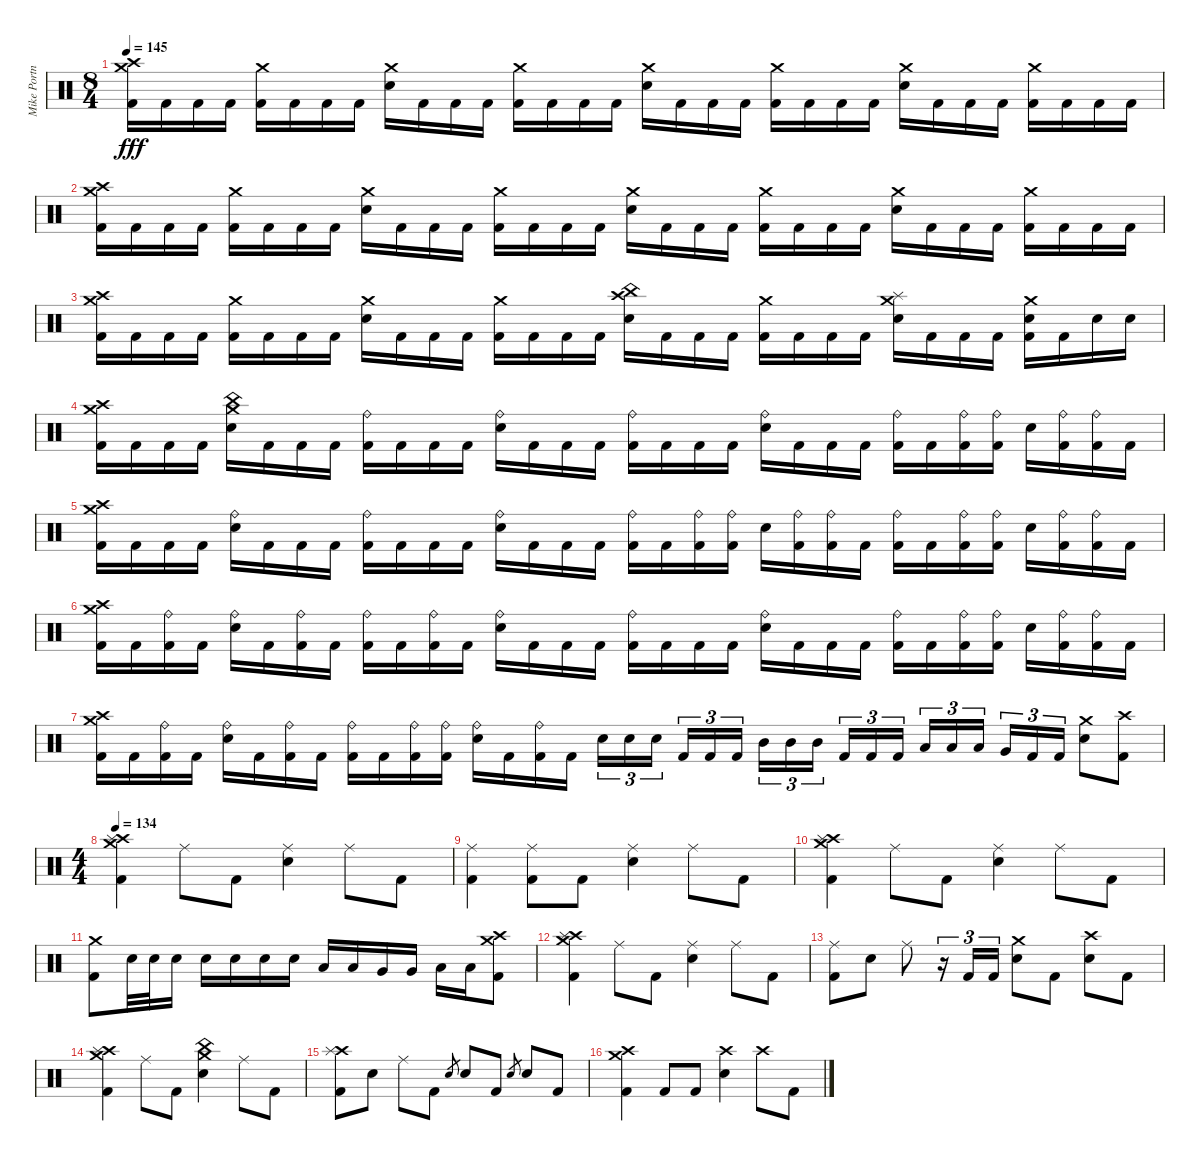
\track ("Mike Portnoy" "Mike Portn") {instrument percussion}
\staff {score}
\articulation defaults
\ts (8 4)
\tempo 145
\clef neutral
\ks c
("Crash high (hit)" "Crash medium (hit)" "Kick (hit) 2").16{dy fff} "Kick (hit) 2".16 "Kick (hit) 2".16 "Kick (hit) 2".16 ("Crash medium (hit)" "Kick (hit) 2").16 "Kick (hit) 2".16 "Kick (hit) 2".16 "Kick (hit) 2".16 ("Crash medium (hit)" "Electric Snare (hit)").16 "Kick (hit) 2".16 "Kick (hit) 2".16 "Kick (hit) 2".16 ("Crash medium (hit)" "Kick (hit) 2").16 "Kick (hit) 2".16 "Kick (hit) 2".16 "Kick (hit) 2".16 ("Crash medium (hit)" "Electric Snare (hit)").16 "Kick (hit) 2".16 "Kick (hit) 2".16 "Kick (hit) 2".16 ("Crash medium (hit)" "Kick (hit) 2").16 "Kick (hit) 2".16 "Kick (hit) 2".16 "Kick (hit) 2".16 ("Crash medium (hit)" "Electric Snare (hit)").16 "Kick (hit) 2".16 "Kick (hit) 2".16 "Kick (hit) 2".16 ("Crash medium (hit)" "Kick (hit) 2").16 "Kick (hit) 2".16 "Kick (hit) 2".16 "Kick (hit) 2".16 |
("Crash high (hit)" "Crash medium (hit)" "Kick (hit) 2").16 "Kick (hit) 2".16 "Kick (hit) 2".16 "Kick (hit) 2".16 ("Crash medium (hit)" "Kick (hit) 2").16 "Kick (hit) 2".16 "Kick (hit) 2".16 "Kick (hit) 2".16 ("Crash medium (hit)" "Electric Snare (hit)").16 "Kick (hit) 2".16 "Kick (hit) 2".16 "Kick (hit) 2".16 ("Crash medium (hit)" "Kick (hit) 2").16 "Kick (hit) 2".16 "Kick (hit) 2".16 "Kick (hit) 2".16 ("Crash medium (hit)" "Electric Snare (hit)").16 "Kick (hit) 2".16 "Kick (hit) 2".16 "Kick (hit) 2".16 ("Crash medium (hit)" "Kick (hit) 2").16 "Kick (hit) 2".16 "Kick (hit) 2".16 "Kick (hit) 2".16 ("Crash medium (hit)" "Electric Snare (hit)").16 "Kick (hit) 2".16 "Kick (hit) 2".16 "Kick (hit) 2".16 ("Crash medium (hit)" "Kick (hit) 2").16 "Kick (hit) 2".16 "Kick (hit) 2".16 "Kick (hit) 2".16 |
("Crash high (hit)" "Crash medium (hit)" "Kick (hit) 2").16 "Kick (hit) 2".16 "Kick (hit) 2".16 "Kick (hit) 2".16 ("Crash medium (hit)" "Kick (hit) 2").16 "Kick (hit) 2".16 "Kick (hit) 2".16 "Kick (hit) 2".16 ("Crash medium (hit)" "Electric Snare (hit)").16 "Kick (hit) 2".16 "Kick (hit) 2".16 "Kick (hit) 2".16 ("Crash medium (hit)" "Kick (hit) 2").16 "Kick (hit) 2".16 "Kick (hit) 2".16 "Kick (hit) 2".16 ("Crash high (hit)" "China (hit)" "Electric Snare (hit)").16 "Kick (hit) 2".16 "Kick (hit) 2".16 "Kick (hit) 2".16 ("Crash medium (hit)" "Kick (hit) 2").16 "Kick (hit) 2".16 "Kick (hit) 2".16 "Kick (hit) 2".16 ("Crash medium (hit)" "Splash (hit)" "Electric Snare (hit)").16 "Kick (hit) 2".16 "Kick (hit) 2".16 "Kick (hit) 2".16 ("Crash medium (hit)" "Electric Snare (hit)" "Kick (hit) 2").16 "Kick (hit) 2".16 "Electric Snare (hit)".16 "Electric Snare (hit)".16 |
("Crash high (hit)" "Crash medium (hit)" "Kick (hit) 2").16 "Kick (hit) 2".16 "Kick (hit) 2".16 "Kick (hit) 2".16 ("Crash medium (hit)" "China (hit)" "Electric Snare (hit)").16 "Kick (hit) 2".16 "Kick (hit) 2".16 "Kick (hit) 2".16 ("Ride (bell)" "Kick (hit) 2").16 "Kick (hit) 2".16 "Kick (hit) 2".16 "Kick (hit) 2".16 ("Ride (bell)" "Electric Snare (hit)").16 "Kick (hit) 2".16 "Kick (hit) 2".16 "Kick (hit) 2".16 ("Ride (bell)" "Kick (hit) 2").16 "Kick (hit) 2".16 "Kick (hit) 2".16 "Kick (hit) 2".16 ("Ride (bell)" "Electric Snare (hit)").16 "Kick (hit) 2".16 "Kick (hit) 2".16 "Kick (hit) 2".16 ("Ride (bell)" "Kick (hit) 2").16 "Kick (hit) 2".16 ("Ride (bell)" "Kick (hit) 2").16 ("Ride (bell)" "Kick (hit) 2").16 "Electric Snare (hit)".16 ("Ride (bell)" "Kick (hit) 2").16 ("Ride (bell)" "Kick (hit) 2").16 "Kick (hit) 2".16 |
("Crash high (hit)" "Crash medium (hit)" "Kick (hit) 2").16 "Kick (hit) 2".16 "Kick (hit) 2".16 "Kick (hit) 2".16 ("Ride (bell)" "Electric Snare (hit)").16 "Kick (hit) 2".16 "Kick (hit) 2".16 "Kick (hit) 2".16 ("Ride (bell)" "Kick (hit) 2").16 "Kick (hit) 2".16 "Kick (hit) 2".16 "Kick (hit) 2".16 ("Ride (bell)" "Electric Snare (hit)").16 "Kick (hit) 2".16 "Kick (hit) 2".16 "Kick (hit) 2".16 ("Ride (bell)" "Kick (hit) 2").16 "Kick (hit) 2".16 ("Ride (bell)" "Kick (hit) 2").16 ("Ride (bell)" "Kick (hit) 2").16 "Electric Snare (hit)".16 ("Ride (bell)" "Kick (hit) 2").16 ("Ride (bell)" "Kick (hit) 2").16 "Kick (hit) 2".16 ("Ride (bell)" "Kick (hit) 2").16 "Kick (hit) 2".16 ("Ride (bell)" "Kick (hit) 2").16 ("Ride (bell)" "Kick (hit) 2").16 "Electric Snare (hit)".16 ("Ride (bell)" "Kick (hit) 2").16 ("Ride (bell)" "Kick (hit) 2").16 "Kick (hit) 2".16 |
("Crash high (hit)" "Crash medium (hit)" "Kick (hit) 2").16 "Kick (hit) 2".16 ("Ride (bell)" "Kick (hit) 2").16 "Kick (hit) 2".16 ("Ride (bell)" "Electric Snare (hit)").16 "Kick (hit) 2".16 ("Ride (bell)" "Kick (hit) 2").16 "Kick (hit) 2".16 ("Ride (bell)" "Kick (hit) 2").16 "Kick (hit) 2".16 ("Ride (bell)" "Kick (hit) 2").16 "Kick (hit) 2".16 ("Ride (bell)" "Electric Snare (hit)").16 "Kick (hit) 2".16 "Kick (hit) 2".16 "Kick (hit) 2".16 ("Ride (bell)" "Kick (hit) 2").16 "Kick (hit) 2".16 "Kick (hit) 2".16 "Kick (hit) 2".16 ("Ride (bell)" "Electric Snare (hit)").16 "Kick (hit) 2".16 "Kick (hit) 2".16 "Kick (hit) 2".16 ("Ride (bell)" "Kick (hit) 2").16 "Kick (hit) 2".16 ("Ride (bell)" "Kick (hit) 2").16 ("Ride (bell)" "Kick (hit) 2").16 "Electric Snare (hit)".16 ("Ride (bell)" "Kick (hit) 2").16 ("Ride (bell)" "Kick (hit) 2").16 "Kick (hit) 2".16 |
("Crash high (hit)" "Crash medium (hit)" "Kick (hit) 2").16 "Kick (hit) 2".16 ("Ride (bell)" "Kick (hit) 2").16 "Kick (hit) 2".16 ("Ride (bell)" "Electric Snare (hit)").16 "Kick (hit) 2".16 ("Ride (bell)" "Kick (hit) 2").16 "Kick (hit) 2".16 ("Ride (bell)" "Kick (hit) 2").16 "Kick (hit) 2".16 ("Ride (bell)" "Kick (hit) 2").16 ("Ride (bell)" "Kick (hit) 2").16 ("Ride (bell)" "Electric Snare (hit)").16 "Kick (hit) 2".16 ("Ride (bell)" "Kick (hit) 2").16 "Kick (hit) 2".16 "Electric Snare (hit)".16{tu (3 2)} "Electric Snare (hit)".16{tu (3 2)} "Electric Snare (hit)".16{tu (3 2) beam splitsecondary} "Kick (hit) 2".16{tu (3 2)} "Kick (hit) 2".16{tu (3 2)} "Kick (hit) 2".16{tu (3 2)} "Mid Tom (hit)".16{tu (3 2)} "Mid Tom (hit)".16{tu (3 2)} "Mid Tom (hit)".16{tu (3 2) beam splitsecondary} "Kick (hit) 2".16{tu (3 2)} "Kick (hit) 2".16{tu (3 2)} "Kick (hit) 2".16{tu (3 2)} "Low Tom (hit)".16{tu (3 2)} "Low Tom (hit)".16{tu (3 2)} "Low Tom (hit)".16{tu (3 2) beam splitsecondary} "Very Low Tom (hit)".16{tu (3 2)} "Kick (hit) 2".16{tu (3 2)} "Kick (hit) 2".16{tu (3 2)} ("Crash medium (hit)" "Electric Snare (hit)").8 ("Crash high (hit)" "Kick (hit) 2").8 |
\ts (4 4)
\tempo 134
("Crash high (hit)" "Crash medium (hit)" "Splash (hit)" "Kick (hit) 2").4 "Ride (middle)".8 "Kick (hit) 2".8 ("Ride (middle)" "Electric Snare (hit)").4 "Ride (middle)".8 "Kick (hit) 2".8 |
("Ride (middle)" "Kick (hit) 2").4 ("Ride (middle)" "Kick (hit) 2").8 "Kick (hit) 2".8 ("Ride (middle)" "Electric Snare (hit)").4 "Ride (middle)".8 "Kick (hit) 2".8 |
("Crash high (hit)" "Crash medium (hit)" "Splash (hit)" "Kick (hit) 2").4 "Ride (middle)".8 "Kick (hit) 2".8 ("Ride (middle)" "Electric Snare (hit)").4 "Ride (middle)".8 "Kick (hit) 2".8 |
("Crash medium (hit)" "Kick (hit) 2").8 "Electric Snare (hit)".32 "Electric Snare (hit)".32 "Electric Snare (hit)".16 "Electric Snare (hit)".16 "Electric Snare (hit)".16 "Electric Snare (hit)".16 "Electric Snare (hit)".16 "Low Tom (hit)".16 "Low Tom (hit)".16 "Very Low Tom (hit)".16 "Very Low Tom (hit)".16 "Low Floor Tom (hit)".16 "Low Floor Tom (hit)".16 ("Crash medium (hit)" "Crash high (hit)" "Kick (hit) 2").8 |
("Crash high (hit)" "Crash medium (hit)" "Splash (hit)" "Kick (hit) 2").4 "Ride (middle)".8 "Kick (hit) 2".8 ("Ride (middle)" "Electric Snare (hit)").4 "Ride (middle)".8 "Kick (hit) 2".8 |
("Ride (middle)" "Kick (hit) 2").8 "Electric Snare (hit)".8 "Ride (middle)".8 r.16{tu (3 2)} "Kick (hit) 2".16{tu (3 2)} "Kick (hit) 2".16{tu (3 2)} ("Crash medium (hit)" "Electric Snare (hit)").8 "Kick (hit) 2".8 ("Crash high (hit)" "Electric Snare (hit)").8 "Kick (hit) 2".8 |
("Crash high (hit)" "Crash medium (hit)" "Splash (hit)" "Kick (hit) 2").4 "Ride (middle)".8 "Kick (hit) 2".8 ("China (hit)" "Crash medium (hit)" "Electric Snare (hit)").4 "Ride (middle)".8 "Kick (hit) 2".8 |
("Crash high (hit)" "Splash (hit)" "Kick (hit) 2").8 "Electric Snare (hit)".8 "Ride (middle)".8 "Kick (hit) 2".8 "Electric Snare (hit)".8{gr} "Electric Snare (hit)".8 "Kick (hit) 2".8 "Electric Snare (hit)".8{gr} "Electric Snare (hit)".8 "Kick (hit) 2".8 |
("Crash high (hit)" "Crash medium (hit)" "Kick (hit) 2").4 "Kick (hit) 2".8 "Kick (hit) 2".8 ("Crash high (hit)" "Electric Snare (hit)").4 "Crash high (hit)".8 "Kick (hit) 2".8
